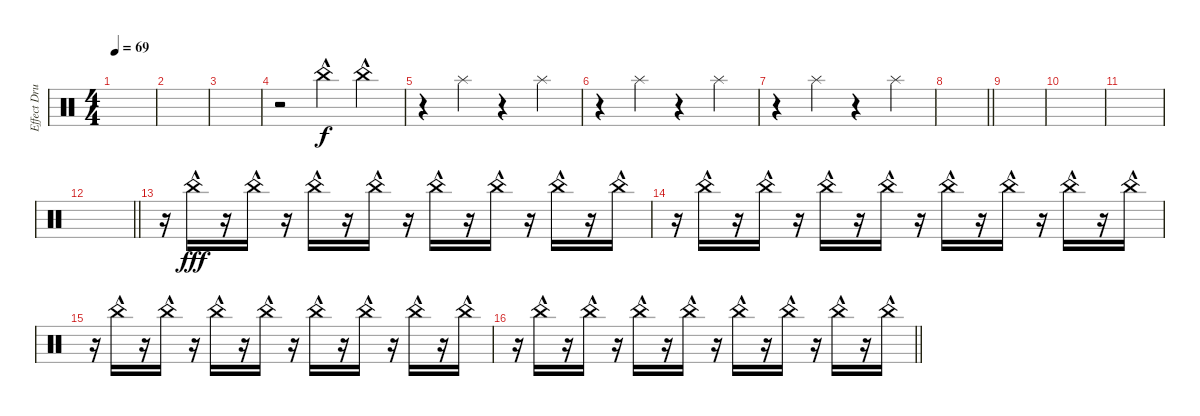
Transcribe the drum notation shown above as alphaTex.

\track ("Effect Drums" "Effect Dru") {instrument percussion}
\staff {score}
\articulation defaults
\ts (4 4)
\tempo 69
\clef neutral
\ks c
|
|
\ks aminor
|
r.2{volume 12} "China (hit)"{hac}.4 "China (hit)"{hac}.4{volume 0} |
r.4{volume 9} "Splash (hit)".4{dy f} r.4 "Splash (hit)".4 |
r.4 "Splash (hit)".4 r.4 "Splash (hit)".4 |
r.4 "Splash (hit)".4 r.4 "Splash (hit)".4 |
\barLineRight lightlight
|
|
|
|
\barLineRight lightlight
|
r.16 "China (hit)"{hac}.16{dy fff} r.16 "China (hit)"{hac}.16 r.16 "China (hit)"{hac}.16 r.16 "China (hit)"{hac}.16 r.16 "China (hit)"{hac}.16 r.16 "China (hit)"{hac}.16 r.16 "China (hit)"{hac}.16 r.16 "China (hit)"{hac}.16 |
r.16 "China (hit)"{hac}.16 r.16 "China (hit)"{hac}.16 r.16 "China (hit)"{hac}.16 r.16 "China (hit)"{hac}.16 r.16 "China (hit)"{hac}.16 r.16 "China (hit)"{hac}.16 r.16 "China (hit)"{hac}.16 r.16 "China (hit)"{hac}.16 |
r.16 "China (hit)"{hac}.16 r.16 "China (hit)"{hac}.16 r.16 "China (hit)"{hac}.16 r.16 "China (hit)"{hac}.16 r.16 "China (hit)"{hac}.16 r.16 "China (hit)"{hac}.16 r.16 "China (hit)"{hac}.16 r.16 "China (hit)"{hac}.16 |
\barLineRight lightlight
r.16 "China (hit)"{hac}.16 r.16 "China (hit)"{hac}.16 r.16 "China (hit)"{hac}.16 r.16 "China (hit)"{hac}.16 r.16 "China (hit)"{hac}.16 r.16 "China (hit)"{hac}.16 r.16 "China (hit)"{hac}.16 r.16 "China (hit)"{hac}.16
